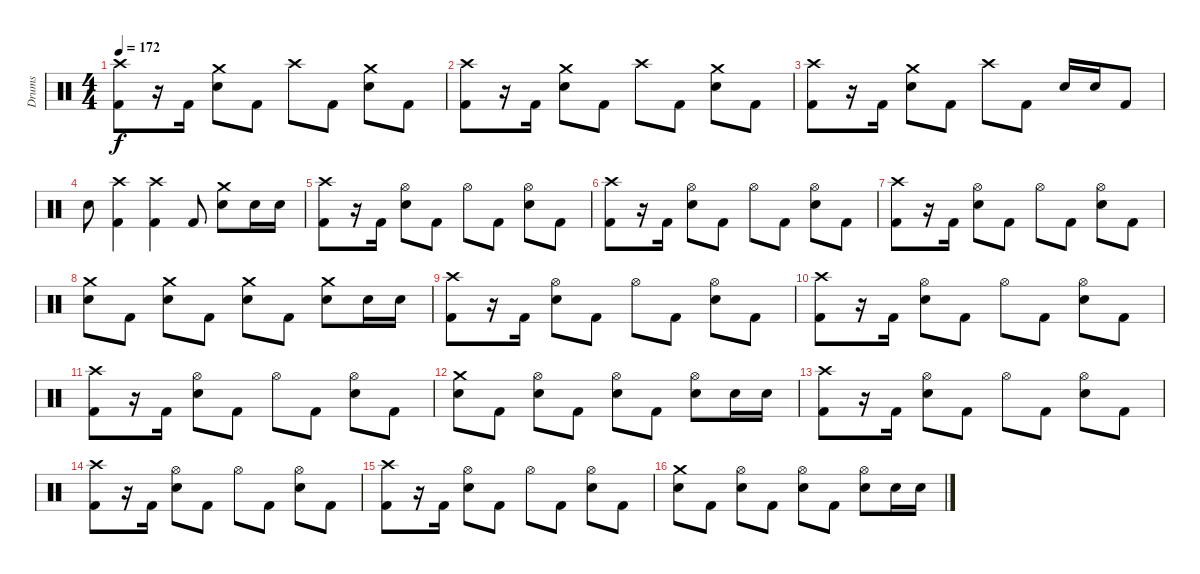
\track ("Drums" "Drums") {instrument percussion}
\staff {score}
\articulation defaults
\ts (4 4)
\tempo 172
\clef neutral
\ks c
("Crash high (hit)" "Kick (hit) 2").8{dy f} r.16 "Kick (hit) 2".16 ("Crash medium (hit)" "Snare (hit) 2").8 "Kick (hit) 2".8 "Crash high (hit)".8 "Kick (hit) 2".8 ("Crash medium (hit)" "Snare (hit) 2").8 "Kick (hit) 2".8 |
("Crash high (hit)" "Kick (hit) 2").8 r.16 "Kick (hit) 2".16 ("Crash medium (hit)" "Snare (hit) 2").8 "Kick (hit) 2".8 "Crash high (hit)".8 "Kick (hit) 2".8 ("Crash medium (hit)" "Snare (hit) 2").8 "Kick (hit) 2".8 |
("Crash high (hit)" "Kick (hit) 2").8 r.16 "Kick (hit) 2".16 ("Crash medium (hit)" "Snare (hit) 2").8 "Kick (hit) 2".8 "Crash high (hit)".8 "Kick (hit) 2".8 "Snare (hit) 2".16 "Snare (hit) 2".16 "Kick (hit) 2".8 |
"Snare (hit) 2".8 ("Crash high (hit)" "Kick (hit) 2").4 ("Crash high (hit)" "Kick (hit) 2").4 "Kick (hit) 2".8 ("Crash medium (hit)" "Snare (hit) 2").8 "Snare (hit) 2".16 "Snare (hit) 2".16 |
("Crash high (hit)" "Kick (hit) 2").8 r.16 "Kick (hit) 2".16 ("Hi-Hat (open)" "Snare (hit) 2").8 "Kick (hit) 2".8 "Hi-Hat (open)".8 "Kick (hit) 2".8 ("Hi-Hat (open)" "Snare (hit) 2").8 "Kick (hit) 2".8 |
("Crash high (hit)" "Kick (hit) 2").8 r.16 "Kick (hit) 2".16 ("Hi-Hat (open)" "Snare (hit) 2").8 "Kick (hit) 2".8 "Hi-Hat (open)".8 "Kick (hit) 2".8 ("Hi-Hat (open)" "Snare (hit) 2").8 "Kick (hit) 2".8 |
("Crash high (hit)" "Kick (hit) 2").8 r.16 "Kick (hit) 2".16 ("Hi-Hat (open)" "Snare (hit) 2").8 "Kick (hit) 2".8 "Hi-Hat (open)".8 "Kick (hit) 2".8 ("Hi-Hat (open)" "Snare (hit) 2").8 "Kick (hit) 2".8 |
("Crash medium (hit)" "Snare (hit) 2").8 "Kick (hit) 2".8 ("Crash medium (hit)" "Snare (hit) 2").8 "Kick (hit) 2".8 ("Crash medium (hit)" "Snare (hit) 2").8 "Kick (hit) 2".8 ("Crash medium (hit)" "Snare (hit) 2").8 "Snare (hit) 2".16 "Snare (hit) 2".16 |
("Crash high (hit)" "Kick (hit) 2").8 r.16 "Kick (hit) 2".16 ("Hi-Hat (open)" "Snare (hit) 2").8 "Kick (hit) 2".8 "Hi-Hat (open)".8 "Kick (hit) 2".8 ("Hi-Hat (open)" "Snare (hit) 2").8 "Kick (hit) 2".8 |
("Crash high (hit)" "Kick (hit) 2").8 r.16 "Kick (hit) 2".16 ("Hi-Hat (open)" "Snare (hit) 2").8 "Kick (hit) 2".8 "Hi-Hat (open)".8 "Kick (hit) 2".8 ("Hi-Hat (open)" "Snare (hit) 2").8 "Kick (hit) 2".8 |
("Crash high (hit)" "Kick (hit) 2").8 r.16 "Kick (hit) 2".16 ("Hi-Hat (open)" "Snare (hit) 2").8 "Kick (hit) 2".8 "Hi-Hat (open)".8 "Kick (hit) 2".8 ("Hi-Hat (open)" "Snare (hit) 2").8 "Kick (hit) 2".8 |
("Crash medium (hit)" "Snare (hit) 2").8 "Kick (hit) 2".8 ("Hi-Hat (open)" "Snare (hit) 2").8 "Kick (hit) 2".8 ("Hi-Hat (open)" "Snare (hit) 2").8 "Kick (hit) 2".8 ("Hi-Hat (open)" "Snare (hit) 2").8 "Snare (hit) 2".16 "Snare (hit) 2".16 |
("Crash high (hit)" "Kick (hit) 2").8 r.16 "Kick (hit) 2".16 ("Hi-Hat (open)" "Snare (hit) 2").8 "Kick (hit) 2".8 "Hi-Hat (open)".8 "Kick (hit) 2".8 ("Hi-Hat (open)" "Snare (hit) 2").8 "Kick (hit) 2".8 |
("Crash high (hit)" "Kick (hit) 2").8 r.16 "Kick (hit) 2".16 ("Hi-Hat (open)" "Snare (hit) 2").8 "Kick (hit) 2".8 "Hi-Hat (open)".8 "Kick (hit) 2".8 ("Hi-Hat (open)" "Snare (hit) 2").8 "Kick (hit) 2".8 |
("Crash high (hit)" "Kick (hit) 2").8 r.16 "Kick (hit) 2".16 ("Hi-Hat (open)" "Snare (hit) 2").8 "Kick (hit) 2".8 "Hi-Hat (open)".8 "Kick (hit) 2".8 ("Hi-Hat (open)" "Snare (hit) 2").8 "Kick (hit) 2".8 |
("Crash medium (hit)" "Snare (hit) 2").8 "Kick (hit) 2".8 ("Hi-Hat (open)" "Snare (hit) 2").8 "Kick (hit) 2".8 ("Hi-Hat (open)" "Snare (hit) 2").8 "Kick (hit) 2".8 ("Hi-Hat (open)" "Snare (hit) 2").8 "Snare (hit) 2".16 "Snare (hit) 2".16
